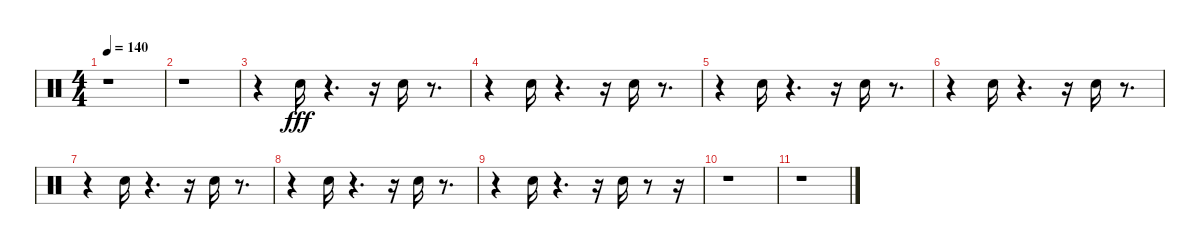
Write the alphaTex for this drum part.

\track "" {instrument percussion}
\staff {score}
\articulation defaults
\ts (4 4)
\tempo 140
\clef neutral
\ks c
r.1{dy fff} |
r.1 |
r.4 "Snare (hit) 2".16 r.4{d} r.16 "Snare (hit) 2".16 r.8{d} |
r.4 "Snare (hit) 2".16 r.4{d} r.16 "Snare (hit) 2".16 r.8{d} |
r.4 "Snare (hit) 2".16 r.4{d} r.16 "Snare (hit) 2".16 r.8{d} |
r.4 "Snare (hit) 2".16 r.4{d} r.16 "Snare (hit) 2".16 r.8{d} |
r.4 "Snare (hit) 2".16 r.4{d} r.16 "Snare (hit) 2".16 r.8{d} |
r.4 "Snare (hit) 2".16 r.4{d} r.16 "Snare (hit) 2".16 r.8{d} |
r.4 "Snare (hit) 2".16 r.4{d} r.16 "Snare (hit) 2".16 r.8 r.16 |
r.1 |
r.1
